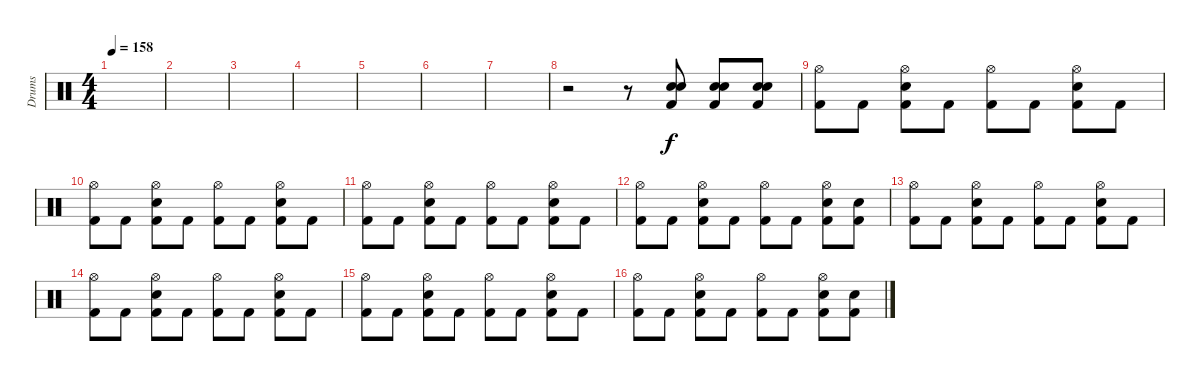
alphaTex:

\track ("Drums" "Drums") {instrument percussion}
\staff {score}
\articulation defaults
\ts (4 4)
\tempo 158
\clef neutral
\ks c
|
|
|
|
|
|
|
r.2 r.8 ("Kick (hit) 2" "Electric Snare (hit)" "Electric Snare (hit)").8 ("Kick (hit) 2" "Electric Snare (hit)" "Electric Snare (hit)").8 ("Kick (hit) 2" "Electric Snare (hit)" "Electric Snare (hit)").8 |
("Hi-Hat (open)" "Kick (hit) 2").8 "Kick (hit) 2".8 ("Hi-Hat (open)" "Electric Snare (hit)" "Kick (hit) 2").8 "Kick (hit) 2".8 ("Hi-Hat (open)" "Kick (hit) 2").8 "Kick (hit) 2".8 ("Hi-Hat (open)" "Kick (hit) 2" "Electric Snare (hit)").8 "Kick (hit) 2".8 |
("Hi-Hat (open)" "Kick (hit) 2").8 "Kick (hit) 2".8 ("Hi-Hat (open)" "Electric Snare (hit)" "Kick (hit) 2").8 "Kick (hit) 2".8 ("Hi-Hat (open)" "Kick (hit) 2").8 "Kick (hit) 2".8 ("Hi-Hat (open)" "Kick (hit) 2" "Electric Snare (hit)").8 "Kick (hit) 2".8 |
("Hi-Hat (open)" "Kick (hit) 2").8 "Kick (hit) 2".8 ("Hi-Hat (open)" "Electric Snare (hit)" "Kick (hit) 2").8 "Kick (hit) 2".8 ("Hi-Hat (open)" "Kick (hit) 2").8 "Kick (hit) 2".8 ("Hi-Hat (open)" "Kick (hit) 2" "Electric Snare (hit)").8 "Kick (hit) 2".8 |
("Hi-Hat (open)" "Kick (hit) 2").8 "Kick (hit) 2".8 ("Hi-Hat (open)" "Electric Snare (hit)" "Kick (hit) 2").8 "Kick (hit) 2".8 ("Hi-Hat (open)" "Kick (hit) 2").8 "Kick (hit) 2".8 ("Hi-Hat (open)" "Kick (hit) 2" "Electric Snare (hit)").8 ("Electric Snare (hit)" "Kick (hit) 2").8 |
("Hi-Hat (open)" "Kick (hit) 2").8 "Kick (hit) 2".8 ("Hi-Hat (open)" "Electric Snare (hit)" "Kick (hit) 2").8 "Kick (hit) 2".8 ("Hi-Hat (open)" "Kick (hit) 2").8 "Kick (hit) 2".8 ("Hi-Hat (open)" "Kick (hit) 2" "Electric Snare (hit)").8 "Kick (hit) 2".8 |
("Hi-Hat (open)" "Kick (hit) 2").8 "Kick (hit) 2".8 ("Hi-Hat (open)" "Electric Snare (hit)" "Kick (hit) 2").8 "Kick (hit) 2".8 ("Hi-Hat (open)" "Kick (hit) 2").8 "Kick (hit) 2".8 ("Hi-Hat (open)" "Kick (hit) 2" "Electric Snare (hit)").8 "Kick (hit) 2".8 |
("Hi-Hat (open)" "Kick (hit) 2").8 "Kick (hit) 2".8 ("Hi-Hat (open)" "Electric Snare (hit)" "Kick (hit) 2").8 "Kick (hit) 2".8 ("Hi-Hat (open)" "Kick (hit) 2").8 "Kick (hit) 2".8 ("Hi-Hat (open)" "Kick (hit) 2" "Electric Snare (hit)").8 "Kick (hit) 2".8 |
("Hi-Hat (open)" "Kick (hit) 2").8 "Kick (hit) 2".8 ("Hi-Hat (open)" "Electric Snare (hit)" "Kick (hit) 2").8 "Kick (hit) 2".8 ("Hi-Hat (open)" "Kick (hit) 2").8 "Kick (hit) 2".8 ("Hi-Hat (open)" "Kick (hit) 2" "Electric Snare (hit)").8 ("Electric Snare (hit)" "Kick (hit) 2").8
